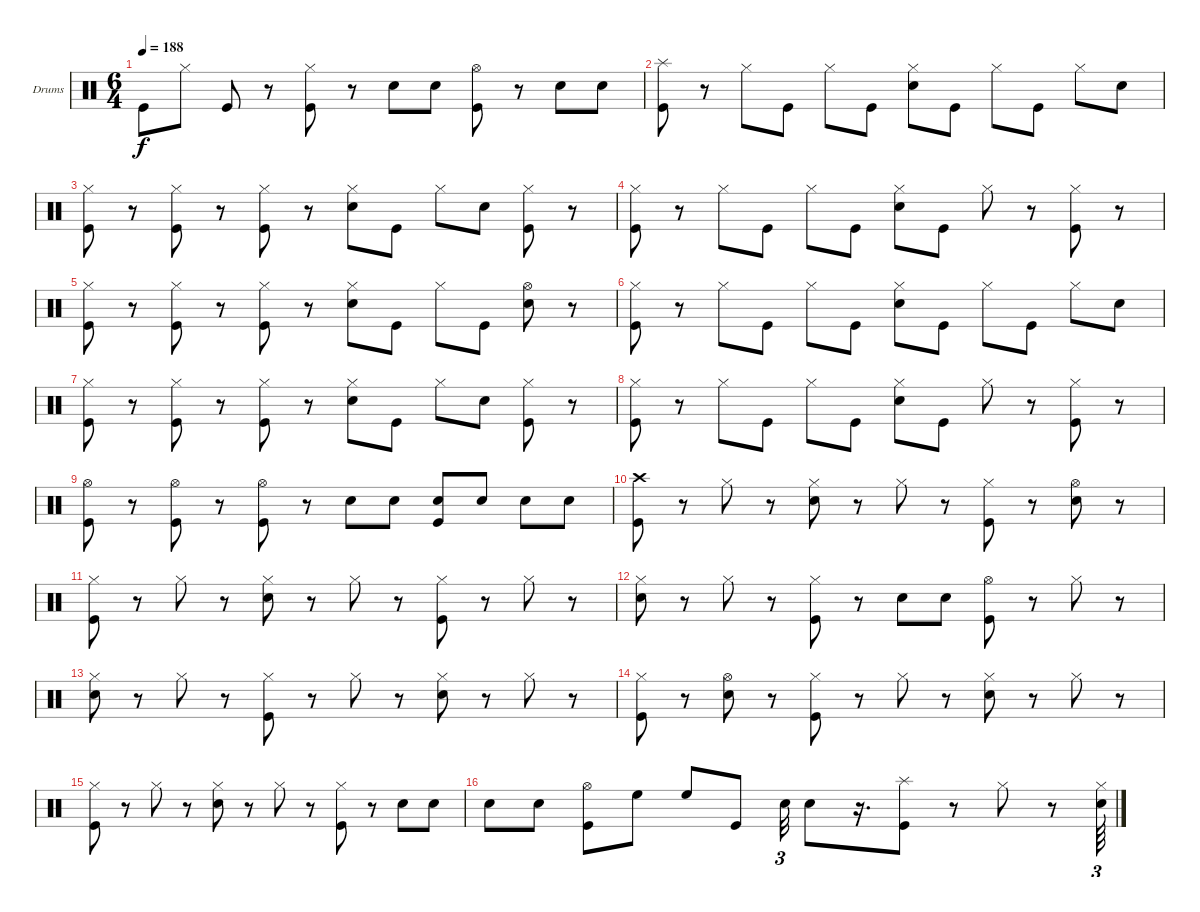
\bracketExtendMode groupsimilarinstruments
\firstSystemTrackNameOrientation horizontal
\otherSystemsTrackNameOrientation horizontal
\track ("Drumkit" "Drums") {instrument percussion}
\staff {score}
\articulation defaults
\ts (6 4)
\tempo 188
\clef neutral
\ks c "Kick (hit)".8{dy f} "Hi-Hat (closed)".8 "Kick (hit)".8
r.8 ("Hi-Hat (closed)" "Kick (hit)").8 r.8 "Snare (hit) 2".8 "Snare (hit) 2".8 ("Kick (hit)" "Hi-Hat (open)").8 r.8 "Snare (hit) 2".8 "Snare (hit) 2".8 |
("Kick (hit)" "Splash (hit)").8 r.8 "Hi-Hat (closed)".8 "Kick (hit)".8 "Hi-Hat (closed)".8 "Kick (hit)".8 ("Snare (hit) 2" "Hi-Hat (closed)").8 "Kick (hit)".8 "Hi-Hat (closed)".8 "Kick (hit)".8 "Hi-Hat (closed)".8 "Snare (hit) 2".8 |
("Kick (hit)" "Hi-Hat (closed)").8 r.8 ("Kick (hit)" "Hi-Hat (closed)").8 r.8 ("Kick (hit)" "Hi-Hat (closed)").8 r.8 ("Snare (hit) 2" "Hi-Hat (closed)").8 "Kick (hit)".8 "Hi-Hat (closed)".8 "Snare (hit) 2".8 ("Kick (hit)" "Hi-Hat (closed)").8 r.8 |
("Kick (hit)" "Hi-Hat (closed)").8 r.8 "Hi-Hat (closed)".8 "Kick (hit)".8 "Hi-Hat (closed)".8 "Kick (hit)".8 ("Hi-Hat (closed)" "Snare (hit) 2").8 "Kick (hit)".8 "Hi-Hat (closed)".8 r.8 ("Hi-Hat (closed)" "Kick (hit)").8 r.8 |
("Hi-Hat (closed)" "Kick (hit)").8 r.8 ("Hi-Hat (closed)" "Kick (hit)").8 r.8 ("Hi-Hat (closed)" "Kick (hit)").8 r.8 ("Hi-Hat (closed)" "Snare (hit) 2").8 "Kick (hit)".8 "Hi-Hat (closed)".8 "Kick (hit)".8 ("Hi-Hat (open)" "Snare (hit) 2").8 r.8 |
("Hi-Hat (closed)" "Kick (hit)").8 r.8 "Hi-Hat (closed)".8 "Kick (hit)".8 "Hi-Hat (closed)".8 "Kick (hit)".8 ("Hi-Hat (closed)" "Snare (hit) 2").8 "Kick (hit)".8 "Hi-Hat (closed)".8 "Kick (hit)".8 "Hi-Hat (closed)".8 "Snare (hit) 2".8 |
("Hi-Hat (closed)" "Kick (hit)").8 r.8 ("Hi-Hat (closed)" "Kick (hit)").8 r.8 ("Hi-Hat (closed)" "Kick (hit)").8 r.8 ("Hi-Hat (closed)" "Snare (hit) 2").8 "Kick (hit)".8 "Hi-Hat (closed)".8 "Snare (hit) 2".8 ("Hi-Hat (closed)" "Kick (hit)").8 r.8 |
("Hi-Hat (closed)" "Kick (hit)").8 r.8 "Hi-Hat (closed)".8 "Kick (hit)".8 "Hi-Hat (closed)".8 "Kick (hit)".8 ("Hi-Hat (closed)" "Snare (hit) 2").8 "Kick (hit)".8 "Hi-Hat (closed)".8 r.8 ("Hi-Hat (closed)" "Kick (hit)").8 r.8 |
("Hi-Hat (open)" "Kick (hit)").8 r.8 ("Hi-Hat (open)" "Kick (hit)").8 r.8 ("Kick (hit)" "Hi-Hat (open)").8 r.8 "Snare (hit) 2".8 "Snare (hit) 2".8 ("Snare (hit) 2" "Kick (hit)").8 "Snare (hit) 2".8 "Snare (hit) 2".8 "Snare (hit) 2".8 |
("Crash high (hit)" "Kick (hit)").8 r.8 "Hi-Hat (closed)".8 r.8 ("Hi-Hat (closed)" "Snare (hit) 2").8 r.8 "Hi-Hat (closed)".8 r.8 ("Hi-Hat (closed)" "Kick (hit)").8 r.8 ("Hi-Hat (open)" "Snare (hit) 2").8 r.8 |
("Kick (hit)" "Hi-Hat (closed)").8 r.8 "Hi-Hat (closed)".8 r.8 ("Snare (hit) 2" "Hi-Hat (closed)").8 r.8 "Hi-Hat (closed)".8 r.8 ("Kick (hit)" "Hi-Hat (closed)").8 r.8 "Hi-Hat (closed)".8 r.8 |
("Hi-Hat (closed)" "Snare (hit) 2").8 r.8 "Hi-Hat (closed)".8 r.8 ("Hi-Hat (closed)" "Kick (hit)").8 r.8 "Snare (hit) 2".8 "Snare (hit) 2".8 ("Hi-Hat (open)" "Kick (hit)").8 r.8 "Hi-Hat (closed)".8 r.8 |
("Snare (hit) 2" "Hi-Hat (closed)").8 r.8 "Hi-Hat (closed)".8 r.8 ("Kick (hit)" "Hi-Hat (closed)").8 r.8 "Hi-Hat (closed)".8 r.8 ("Hi-Hat (closed)" "Snare (hit) 2").8 r.8 "Hi-Hat (closed)".8 r.8 |
("Hi-Hat (closed)" "Kick (hit)").8 r.8 ("Snare (hit) 2" "Hi-Hat (open)").8 r.8 ("Kick (hit)" "Hi-Hat (closed)").8 r.8 "Hi-Hat (closed)".8 r.8 ("Snare (hit) 2" "Hi-Hat (closed)").8 r.8 "Hi-Hat (closed)".8 r.8 |
("Kick (hit)" "Hi-Hat (closed)").8 r.8 "Hi-Hat (closed)".8 r.8 ("Hi-Hat (closed)" "Snare (hit) 2").8 r.8 "Hi-Hat (closed)".8 r.8 ("Hi-Hat (closed)" "Kick (hit)").8 r.8 "Snare (hit) 2".8 "Snare (hit) 2".8 |
"Snare (hit) 2".8 "Snare (hit) 2".8 ("Hi-Hat (open)" "Kick (hit)").8 "High Floor Tom (hit)".8 "High Floor Tom (hit)".8 "Kick (hit)".8 "Snare (hit) 2".32{tu (3 2)} "Snare (hit) 2".8 r.16{d} ("Kick (hit)" "Splash (hit)").8 r.8 "Hi-Hat (closed)".8 r.8 ("Hi-Hat (closed)" "Snare (hit) 2").64{tu (3 2)}
